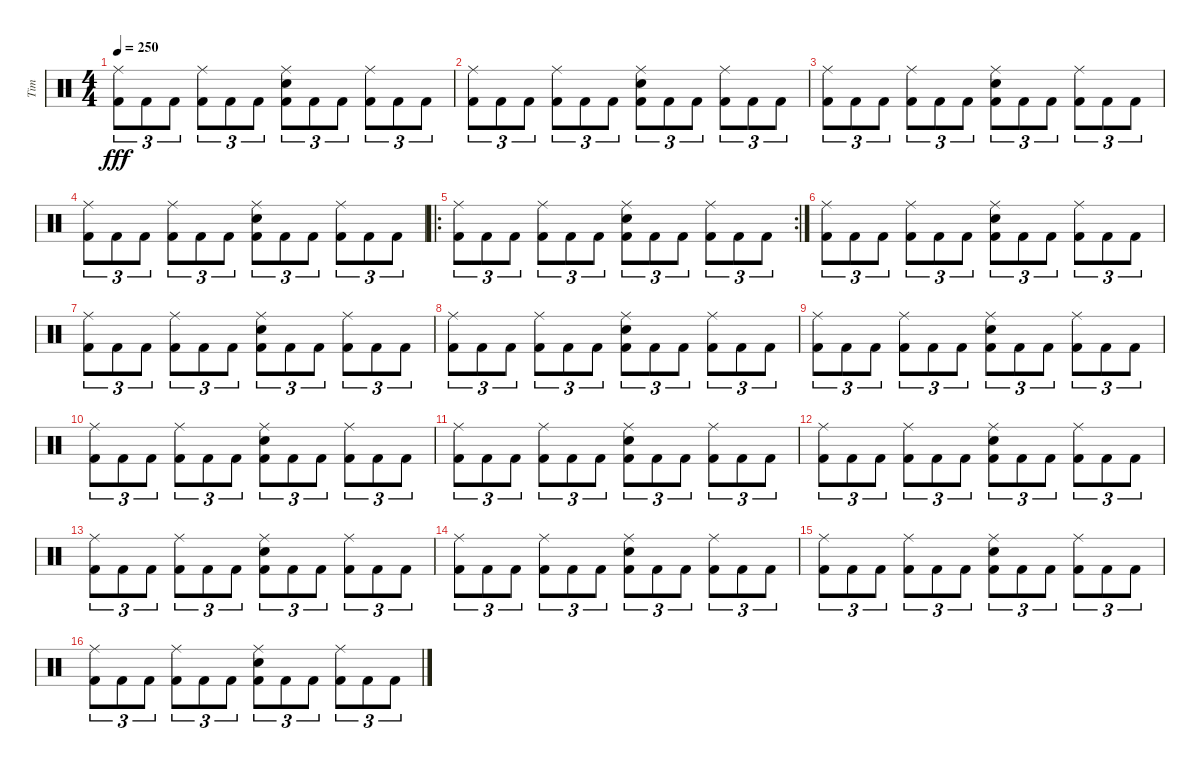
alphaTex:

\track ("Tim" "Tim") {instrument percussion}
\staff {score}
\articulation defaults
\ts (4 4)
\tempo 250
\clef neutral
\ks c
("Ride (middle)" "Kick (hit) 2").8{tu (3 2) dy fff} "Kick (hit) 2".8{tu (3 2)} "Kick (hit) 2".8{tu (3 2)} ("Ride (middle)" "Kick (hit) 2").8{tu (3 2)} "Kick (hit) 2".8{tu (3 2)} "Kick (hit) 2".8{tu (3 2)} ("Ride (middle)" "Electric Snare (hit)" "Kick (hit) 2").8{tu (3 2)} "Kick (hit) 2".8{tu (3 2)} "Kick (hit) 2".8{tu (3 2)} ("Ride (middle)" "Kick (hit) 2").8{tu (3 2)} "Kick (hit) 2".8{tu (3 2)} "Kick (hit) 2".8{tu (3 2)} |
("Ride (middle)" "Kick (hit) 2").8{tu (3 2)} "Kick (hit) 2".8{tu (3 2)} "Kick (hit) 2".8{tu (3 2)} ("Ride (middle)" "Kick (hit) 2").8{tu (3 2)} "Kick (hit) 2".8{tu (3 2)} "Kick (hit) 2".8{tu (3 2)} ("Ride (middle)" "Electric Snare (hit)" "Kick (hit) 2").8{tu (3 2)} "Kick (hit) 2".8{tu (3 2)} "Kick (hit) 2".8{tu (3 2)} ("Ride (middle)" "Kick (hit) 2").8{tu (3 2)} "Kick (hit) 2".8{tu (3 2)} "Kick (hit) 2".8{tu (3 2)} |
("Ride (middle)" "Kick (hit) 2").8{tu (3 2)} "Kick (hit) 2".8{tu (3 2)} "Kick (hit) 2".8{tu (3 2)} ("Ride (middle)" "Kick (hit) 2").8{tu (3 2)} "Kick (hit) 2".8{tu (3 2)} "Kick (hit) 2".8{tu (3 2)} ("Ride (middle)" "Electric Snare (hit)" "Kick (hit) 2").8{tu (3 2)} "Kick (hit) 2".8{tu (3 2)} "Kick (hit) 2".8{tu (3 2)} ("Ride (middle)" "Kick (hit) 2").8{tu (3 2)} "Kick (hit) 2".8{tu (3 2)} "Kick (hit) 2".8{tu (3 2)} |
("Ride (middle)" "Kick (hit) 2").8{tu (3 2)} "Kick (hit) 2".8{tu (3 2)} "Kick (hit) 2".8{tu (3 2)} ("Ride (middle)" "Kick (hit) 2").8{tu (3 2)} "Kick (hit) 2".8{tu (3 2)} "Kick (hit) 2".8{tu (3 2)} ("Ride (middle)" "Electric Snare (hit)" "Kick (hit) 2").8{tu (3 2)} "Kick (hit) 2".8{tu (3 2)} "Kick (hit) 2".8{tu (3 2)} ("Ride (middle)" "Kick (hit) 2").8{tu (3 2)} "Kick (hit) 2".8{tu (3 2)} "Kick (hit) 2".8{tu (3 2)} |
\ro
\rc 2
("Ride (middle)" "Kick (hit) 2").8{tu (3 2)} "Kick (hit) 2".8{tu (3 2)} "Kick (hit) 2".8{tu (3 2)} ("Ride (middle)" "Kick (hit) 2").8{tu (3 2)} "Kick (hit) 2".8{tu (3 2)} "Kick (hit) 2".8{tu (3 2)} ("Ride (middle)" "Electric Snare (hit)" "Kick (hit) 2").8{tu (3 2)} "Kick (hit) 2".8{tu (3 2)} "Kick (hit) 2".8{tu (3 2)} ("Ride (middle)" "Kick (hit) 2").8{tu (3 2)} "Kick (hit) 2".8{tu (3 2)} "Kick (hit) 2".8{tu (3 2)} |
("Ride (middle)" "Kick (hit) 2").8{tu (3 2)} "Kick (hit) 2".8{tu (3 2)} "Kick (hit) 2".8{tu (3 2)} ("Ride (middle)" "Kick (hit) 2").8{tu (3 2)} "Kick (hit) 2".8{tu (3 2)} "Kick (hit) 2".8{tu (3 2)} ("Ride (middle)" "Electric Snare (hit)" "Kick (hit) 2").8{tu (3 2)} "Kick (hit) 2".8{tu (3 2)} "Kick (hit) 2".8{tu (3 2)} ("Ride (middle)" "Kick (hit) 2").8{tu (3 2)} "Kick (hit) 2".8{tu (3 2)} "Kick (hit) 2".8{tu (3 2)} |
("Ride (middle)" "Kick (hit) 2").8{tu (3 2)} "Kick (hit) 2".8{tu (3 2)} "Kick (hit) 2".8{tu (3 2)} ("Ride (middle)" "Kick (hit) 2").8{tu (3 2)} "Kick (hit) 2".8{tu (3 2)} "Kick (hit) 2".8{tu (3 2)} ("Ride (middle)" "Electric Snare (hit)" "Kick (hit) 2").8{tu (3 2)} "Kick (hit) 2".8{tu (3 2)} "Kick (hit) 2".8{tu (3 2)} ("Ride (middle)" "Kick (hit) 2").8{tu (3 2)} "Kick (hit) 2".8{tu (3 2)} "Kick (hit) 2".8{tu (3 2)} |
("Ride (middle)" "Kick (hit) 2").8{tu (3 2)} "Kick (hit) 2".8{tu (3 2)} "Kick (hit) 2".8{tu (3 2)} ("Ride (middle)" "Kick (hit) 2").8{tu (3 2)} "Kick (hit) 2".8{tu (3 2)} "Kick (hit) 2".8{tu (3 2)} ("Ride (middle)" "Electric Snare (hit)" "Kick (hit) 2").8{tu (3 2)} "Kick (hit) 2".8{tu (3 2)} "Kick (hit) 2".8{tu (3 2)} ("Ride (middle)" "Kick (hit) 2").8{tu (3 2)} "Kick (hit) 2".8{tu (3 2)} "Kick (hit) 2".8{tu (3 2)} |
("Ride (middle)" "Kick (hit) 2").8{tu (3 2)} "Kick (hit) 2".8{tu (3 2)} "Kick (hit) 2".8{tu (3 2)} ("Ride (middle)" "Kick (hit) 2").8{tu (3 2)} "Kick (hit) 2".8{tu (3 2)} "Kick (hit) 2".8{tu (3 2)} ("Ride (middle)" "Electric Snare (hit)" "Kick (hit) 2").8{tu (3 2)} "Kick (hit) 2".8{tu (3 2)} "Kick (hit) 2".8{tu (3 2)} ("Ride (middle)" "Kick (hit) 2").8{tu (3 2)} "Kick (hit) 2".8{tu (3 2)} "Kick (hit) 2".8{tu (3 2)} |
("Ride (middle)" "Kick (hit) 2").8{tu (3 2)} "Kick (hit) 2".8{tu (3 2)} "Kick (hit) 2".8{tu (3 2)} ("Ride (middle)" "Kick (hit) 2").8{tu (3 2)} "Kick (hit) 2".8{tu (3 2)} "Kick (hit) 2".8{tu (3 2)} ("Ride (middle)" "Electric Snare (hit)" "Kick (hit) 2").8{tu (3 2)} "Kick (hit) 2".8{tu (3 2)} "Kick (hit) 2".8{tu (3 2)} ("Ride (middle)" "Kick (hit) 2").8{tu (3 2)} "Kick (hit) 2".8{tu (3 2)} "Kick (hit) 2".8{tu (3 2)} |
("Ride (middle)" "Kick (hit) 2").8{tu (3 2)} "Kick (hit) 2".8{tu (3 2)} "Kick (hit) 2".8{tu (3 2)} ("Ride (middle)" "Kick (hit) 2").8{tu (3 2)} "Kick (hit) 2".8{tu (3 2)} "Kick (hit) 2".8{tu (3 2)} ("Ride (middle)" "Electric Snare (hit)" "Kick (hit) 2").8{tu (3 2)} "Kick (hit) 2".8{tu (3 2)} "Kick (hit) 2".8{tu (3 2)} ("Ride (middle)" "Kick (hit) 2").8{tu (3 2)} "Kick (hit) 2".8{tu (3 2)} "Kick (hit) 2".8{tu (3 2)} |
("Ride (middle)" "Kick (hit) 2").8{tu (3 2)} "Kick (hit) 2".8{tu (3 2)} "Kick (hit) 2".8{tu (3 2)} ("Ride (middle)" "Kick (hit) 2").8{tu (3 2)} "Kick (hit) 2".8{tu (3 2)} "Kick (hit) 2".8{tu (3 2)} ("Ride (middle)" "Electric Snare (hit)" "Kick (hit) 2").8{tu (3 2)} "Kick (hit) 2".8{tu (3 2)} "Kick (hit) 2".8{tu (3 2)} ("Ride (middle)" "Kick (hit) 2").8{tu (3 2)} "Kick (hit) 2".8{tu (3 2)} "Kick (hit) 2".8{tu (3 2)} |
("Ride (middle)" "Kick (hit) 2").8{tu (3 2)} "Kick (hit) 2".8{tu (3 2)} "Kick (hit) 2".8{tu (3 2)} ("Ride (middle)" "Kick (hit) 2").8{tu (3 2)} "Kick (hit) 2".8{tu (3 2)} "Kick (hit) 2".8{tu (3 2)} ("Ride (middle)" "Electric Snare (hit)" "Kick (hit) 2").8{tu (3 2)} "Kick (hit) 2".8{tu (3 2)} "Kick (hit) 2".8{tu (3 2)} ("Ride (middle)" "Kick (hit) 2").8{tu (3 2)} "Kick (hit) 2".8{tu (3 2)} "Kick (hit) 2".8{tu (3 2)} |
("Ride (middle)" "Kick (hit) 2").8{tu (3 2)} "Kick (hit) 2".8{tu (3 2)} "Kick (hit) 2".8{tu (3 2)} ("Ride (middle)" "Kick (hit) 2").8{tu (3 2)} "Kick (hit) 2".8{tu (3 2)} "Kick (hit) 2".8{tu (3 2)} ("Ride (middle)" "Electric Snare (hit)" "Kick (hit) 2").8{tu (3 2)} "Kick (hit) 2".8{tu (3 2)} "Kick (hit) 2".8{tu (3 2)} ("Ride (middle)" "Kick (hit) 2").8{tu (3 2)} "Kick (hit) 2".8{tu (3 2)} "Kick (hit) 2".8{tu (3 2)} |
("Ride (middle)" "Kick (hit) 2").8{tu (3 2)} "Kick (hit) 2".8{tu (3 2)} "Kick (hit) 2".8{tu (3 2)} ("Ride (middle)" "Kick (hit) 2").8{tu (3 2)} "Kick (hit) 2".8{tu (3 2)} "Kick (hit) 2".8{tu (3 2)} ("Ride (middle)" "Electric Snare (hit)" "Kick (hit) 2").8{tu (3 2)} "Kick (hit) 2".8{tu (3 2)} "Kick (hit) 2".8{tu (3 2)} ("Ride (middle)" "Kick (hit) 2").8{tu (3 2)} "Kick (hit) 2".8{tu (3 2)} "Kick (hit) 2".8{tu (3 2)} |
("Ride (middle)" "Kick (hit) 2").8{tu (3 2)} "Kick (hit) 2".8{tu (3 2)} "Kick (hit) 2".8{tu (3 2)} ("Ride (middle)" "Kick (hit) 2").8{tu (3 2)} "Kick (hit) 2".8{tu (3 2)} "Kick (hit) 2".8{tu (3 2)} ("Ride (middle)" "Electric Snare (hit)" "Kick (hit) 2").8{tu (3 2)} "Kick (hit) 2".8{tu (3 2)} "Kick (hit) 2".8{tu (3 2)} ("Ride (middle)" "Kick (hit) 2").8{tu (3 2)} "Kick (hit) 2".8{tu (3 2)} "Kick (hit) 2".8{tu (3 2)}
